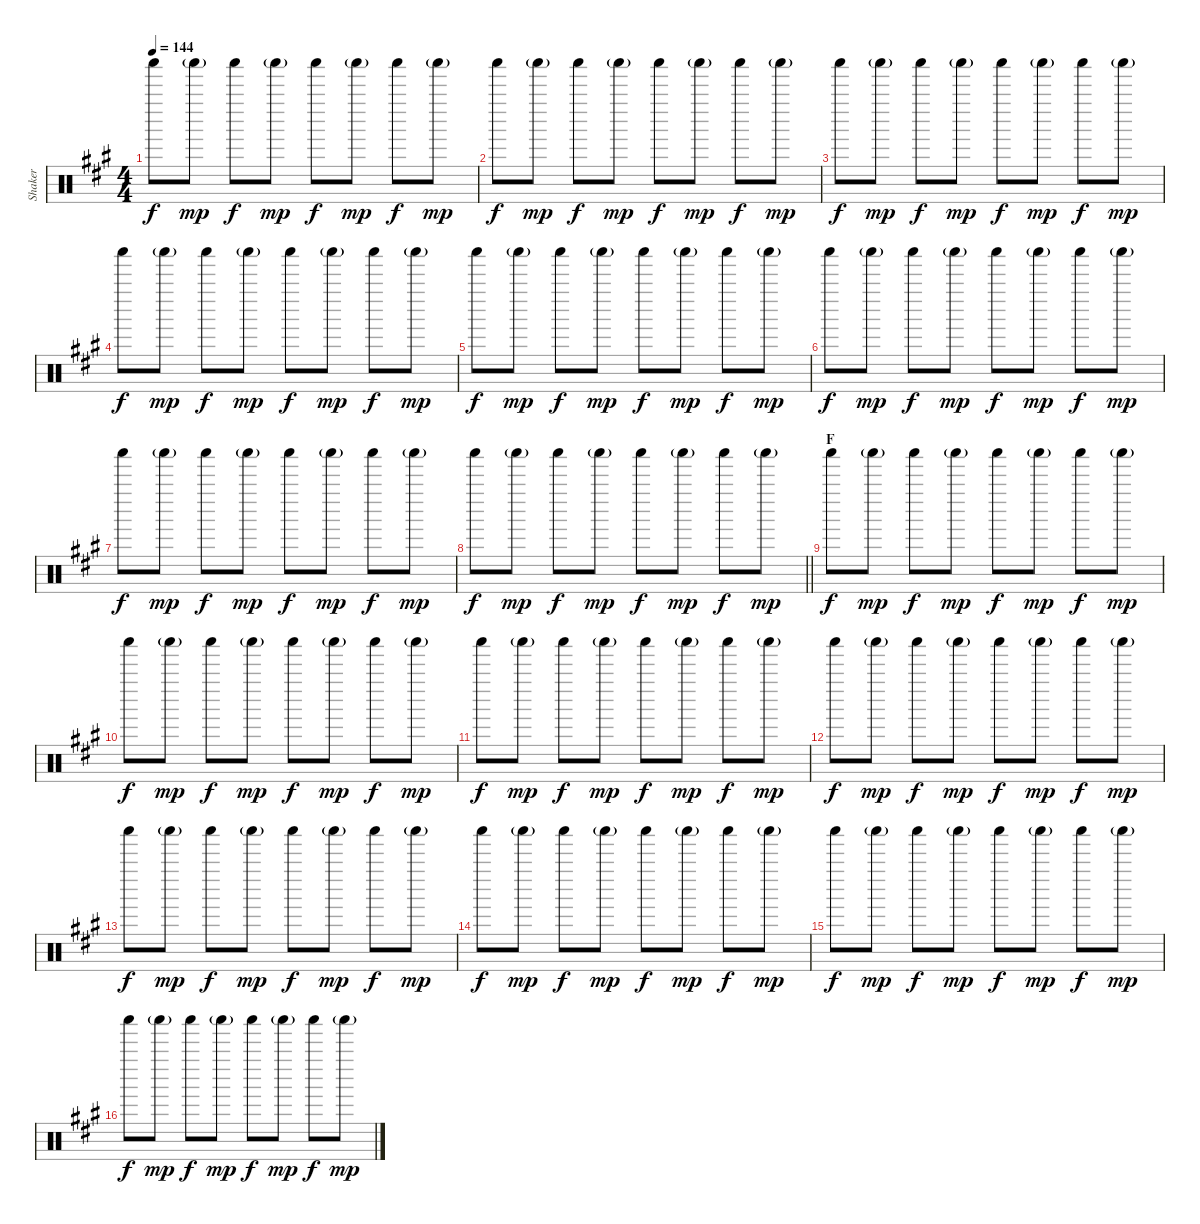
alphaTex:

\track ("Shaker" "Shaker") {instrument percussion}
\staff {score}
\articulation defaults
\ts (4 4)
\tempo 144
\clef neutral
\ks a "Shaker (hit)".8{dy f} "Shaker (hit)"{g}.8{dy mp} "Shaker (hit)".8{dy f} "Shaker (hit)"{g}.8{dy mp} "Shaker (hit)".8{dy f} "Shaker (hit)"{g}.8{dy mp} "Shaker (hit)".8{dy f} "Shaker (hit)"{g}.8{dy mp}
|
"Shaker (hit)".8{dy f} "Shaker (hit)"{g}.8{dy mp} "Shaker (hit)".8{dy f} "Shaker (hit)"{g}.8{dy mp} "Shaker (hit)".8{dy f} "Shaker (hit)"{g}.8{dy mp} "Shaker (hit)".8{dy f} "Shaker (hit)"{g}.8{dy mp} |
"Shaker (hit)".8{dy f} "Shaker (hit)"{g}.8{dy mp} "Shaker (hit)".8{dy f} "Shaker (hit)"{g}.8{dy mp} "Shaker (hit)".8{dy f} "Shaker (hit)"{g}.8{dy mp} "Shaker (hit)".8{dy f} "Shaker (hit)"{g}.8{dy mp} |
"Shaker (hit)".8{dy f} "Shaker (hit)"{g}.8{dy mp} "Shaker (hit)".8{dy f} "Shaker (hit)"{g}.8{dy mp} "Shaker (hit)".8{dy f} "Shaker (hit)"{g}.8{dy mp} "Shaker (hit)".8{dy f} "Shaker (hit)"{g}.8{dy mp} |
"Shaker (hit)".8{dy f} "Shaker (hit)"{g}.8{dy mp} "Shaker (hit)".8{dy f} "Shaker (hit)"{g}.8{dy mp} "Shaker (hit)".8{dy f} "Shaker (hit)"{g}.8{dy mp} "Shaker (hit)".8{dy f} "Shaker (hit)"{g}.8{dy mp} |
"Shaker (hit)".8{dy f} "Shaker (hit)"{g}.8{dy mp} "Shaker (hit)".8{dy f} "Shaker (hit)"{g}.8{dy mp} "Shaker (hit)".8{dy f} "Shaker (hit)"{g}.8{dy mp} "Shaker (hit)".8{dy f} "Shaker (hit)"{g}.8{dy mp} |
"Shaker (hit)".8{dy f} "Shaker (hit)"{g}.8{dy mp} "Shaker (hit)".8{dy f} "Shaker (hit)"{g}.8{dy mp} "Shaker (hit)".8{dy f} "Shaker (hit)"{g}.8{dy mp} "Shaker (hit)".8{dy f} "Shaker (hit)"{g}.8{dy mp} |
\barLineRight lightlight "Shaker (hit)".8{dy f} "Shaker (hit)"{g}.8{dy mp} "Shaker (hit)".8{dy f} "Shaker (hit)"{g}.8{dy mp} "Shaker (hit)".8{dy f} "Shaker (hit)"{g}.8{dy mp} "Shaker (hit)".8{dy f} "Shaker (hit)"{g}.8{dy mp}
|
\section ("" "F")
"Shaker (hit)".8{dy f} "Shaker (hit)"{g}.8{dy mp} "Shaker (hit)".8{dy f} "Shaker (hit)"{g}.8{dy mp} "Shaker (hit)".8{dy f} "Shaker (hit)"{g}.8{dy mp} "Shaker (hit)".8{dy f} "Shaker (hit)"{g}.8{dy mp} |
"Shaker (hit)".8{dy f} "Shaker (hit)"{g}.8{dy mp} "Shaker (hit)".8{dy f} "Shaker (hit)"{g}.8{dy mp} "Shaker (hit)".8{dy f} "Shaker (hit)"{g}.8{dy mp} "Shaker (hit)".8{dy f} "Shaker (hit)"{g}.8{dy mp} |
"Shaker (hit)".8{dy f} "Shaker (hit)"{g}.8{dy mp} "Shaker (hit)".8{dy f} "Shaker (hit)"{g}.8{dy mp} "Shaker (hit)".8{dy f} "Shaker (hit)"{g}.8{dy mp} "Shaker (hit)".8{dy f} "Shaker (hit)"{g}.8{dy mp} |
"Shaker (hit)".8{dy f} "Shaker (hit)"{g}.8{dy mp} "Shaker (hit)".8{dy f} "Shaker (hit)"{g}.8{dy mp} "Shaker (hit)".8{dy f} "Shaker (hit)"{g}.8{dy mp} "Shaker (hit)".8{dy f} "Shaker (hit)"{g}.8{dy mp} |
"Shaker (hit)".8{dy f} "Shaker (hit)"{g}.8{dy mp} "Shaker (hit)".8{dy f} "Shaker (hit)"{g}.8{dy mp} "Shaker (hit)".8{dy f} "Shaker (hit)"{g}.8{dy mp} "Shaker (hit)".8{dy f} "Shaker (hit)"{g}.8{dy mp} |
"Shaker (hit)".8{dy f} "Shaker (hit)"{g}.8{dy mp} "Shaker (hit)".8{dy f} "Shaker (hit)"{g}.8{dy mp} "Shaker (hit)".8{dy f} "Shaker (hit)"{g}.8{dy mp} "Shaker (hit)".8{dy f} "Shaker (hit)"{g}.8{dy mp} |
"Shaker (hit)".8{dy f} "Shaker (hit)"{g}.8{dy mp} "Shaker (hit)".8{dy f} "Shaker (hit)"{g}.8{dy mp} "Shaker (hit)".8{dy f} "Shaker (hit)"{g}.8{dy mp} "Shaker (hit)".8{dy f} "Shaker (hit)"{g}.8{dy mp} |
"Shaker (hit)".8{dy f} "Shaker (hit)"{g}.8{dy mp} "Shaker (hit)".8{dy f} "Shaker (hit)"{g}.8{dy mp} "Shaker (hit)".8{dy f} "Shaker (hit)"{g}.8{dy mp} "Shaker (hit)".8{dy f} "Shaker (hit)"{g}.8{dy mp}
